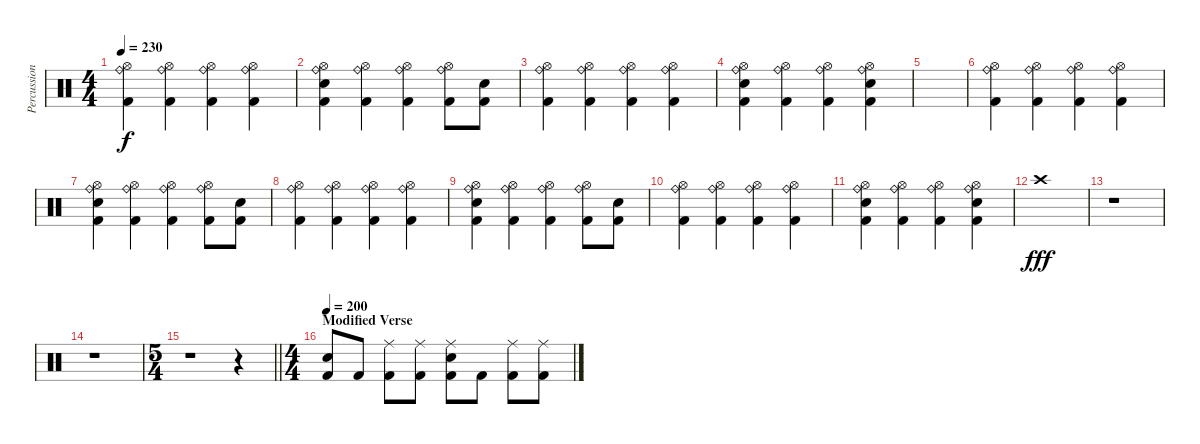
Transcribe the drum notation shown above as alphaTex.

\track ("Percussion" "Percussion") {instrument percussion}
\staff {score}
\articulation defaults
\ts (4 4)
\tempo 230
\clef neutral
\ks c
("Hi-Hat (open)" "Ride (bell)" "Kick (hit) 2").4{dy f} ("Hi-Hat (open)" "Ride (bell)" "Kick (hit) 2").4 ("Hi-Hat (open)" "Ride (bell)" "Kick (hit) 2").4 ("Hi-Hat (open)" "Ride (bell)" "Kick (hit) 2").4 |
("Hi-Hat (open)" "Ride (bell)" "Electric Snare (hit)" "Kick (hit) 2").4 ("Hi-Hat (open)" "Ride (bell)" "Kick (hit) 2").4 ("Hi-Hat (open)" "Ride (bell)" "Kick (hit) 2").4 ("Hi-Hat (open)" "Ride (bell)" "Kick (hit) 2").8 ("Electric Snare (hit)" "Kick (hit) 2").8 |
("Hi-Hat (open)" "Ride (bell)" "Kick (hit) 2").4 ("Hi-Hat (open)" "Ride (bell)" "Kick (hit) 2").4 ("Hi-Hat (open)" "Ride (bell)" "Kick (hit) 2").4 ("Hi-Hat (open)" "Ride (bell)" "Kick (hit) 2").4 |
("Hi-Hat (open)" "Ride (bell)" "Electric Snare (hit)" "Kick (hit) 2").4 ("Hi-Hat (open)" "Ride (bell)" "Kick (hit) 2").4 ("Hi-Hat (open)" "Ride (bell)" "Kick (hit) 2").4 ("Hi-Hat (open)" "Ride (bell)" "Electric Snare (hit)" "Kick (hit) 2").4 |
|
("Hi-Hat (open)" "Ride (bell)" "Kick (hit) 2").4 ("Hi-Hat (open)" "Ride (bell)" "Kick (hit) 2").4 ("Hi-Hat (open)" "Ride (bell)" "Kick (hit) 2").4 ("Hi-Hat (open)" "Ride (bell)" "Kick (hit) 2").4 |
("Hi-Hat (open)" "Ride (bell)" "Electric Snare (hit)" "Kick (hit) 2").4 ("Hi-Hat (open)" "Ride (bell)" "Kick (hit) 2").4 ("Hi-Hat (open)" "Ride (bell)" "Kick (hit) 2").4 ("Hi-Hat (open)" "Ride (bell)" "Kick (hit) 2").8 ("Electric Snare (hit)" "Kick (hit) 2").8 |
("Hi-Hat (open)" "Ride (bell)" "Kick (hit) 2").4 ("Hi-Hat (open)" "Ride (bell)" "Kick (hit) 2").4 ("Hi-Hat (open)" "Ride (bell)" "Kick (hit) 2").4 ("Hi-Hat (open)" "Ride (bell)" "Kick (hit) 2").4 |
("Hi-Hat (open)" "Ride (bell)" "Electric Snare (hit)" "Kick (hit) 2").4 ("Hi-Hat (open)" "Ride (bell)" "Kick (hit) 2").4 ("Hi-Hat (open)" "Ride (bell)" "Kick (hit) 2").4 ("Hi-Hat (open)" "Ride (bell)" "Kick (hit) 2").8 ("Electric Snare (hit)" "Kick (hit) 2").8 |
("Hi-Hat (open)" "Ride (bell)" "Kick (hit) 2").4 ("Hi-Hat (open)" "Ride (bell)" "Kick (hit) 2").4 ("Hi-Hat (open)" "Ride (bell)" "Kick (hit) 2").4 ("Hi-Hat (open)" "Ride (bell)" "Kick (hit) 2").4 |
("Hi-Hat (open)" "Ride (bell)" "Electric Snare (hit)" "Kick (hit) 2").4 ("Hi-Hat (open)" "Ride (bell)" "Kick (hit) 2").4 ("Hi-Hat (open)" "Ride (bell)" "Kick (hit) 2").4 ("Hi-Hat (open)" "Ride (bell)" "Electric Snare (hit)" "Kick (hit) 2").4 |
"Crash high (hit)".1{dy fff} |
r.1 |
r.1 |
\ts (5 4)
\barLineRight lightlight
r.1 r.4 |
\ts (4 4)
\section ("" "Modified Verse")
\tempo 200
("Electric Snare (hit)" "Kick (hit) 2").8 "Kick (hit) 2".8 ("Ride (middle)" "Kick (hit) 2").8 ("Ride (middle)" "Kick (hit) 2").8 ("Ride (middle)" "Electric Snare (hit)" "Kick (hit) 2").8 "Kick (hit) 2".8 ("Ride (middle)" "Kick (hit) 2").8 ("Ride (middle)" "Kick (hit) 2").8
